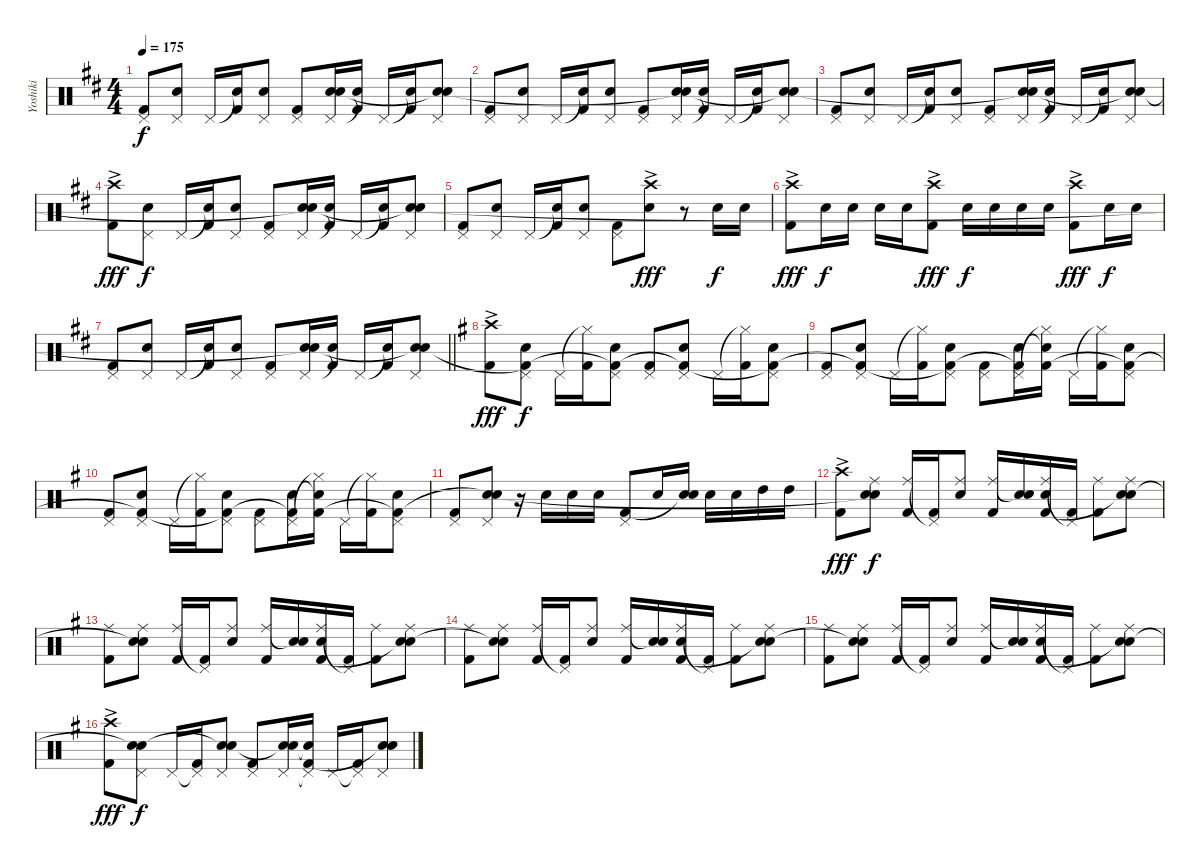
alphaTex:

\track ("Yoshiki" "Yoshiki") {instrument percussion}
\staff {score}
\articulation defaults
\ts (4 4)
\tempo 175
\clef neutral
\ks d
("Pedal Hi-Hat (hit)" "Kick (hit) 2").8{dy f} ("Pedal Hi-Hat (hit)" "Snare (hit) 2").8 "Pedal Hi-Hat (hit)".16 ("Snare (hit)"{t} "Kick (hit) 2").16 ("Pedal Hi-Hat (hit)" "Snare (hit) 2").8 ("Pedal Hi-Hat (hit)" "Kick (hit) 2").8 ("Pedal Hi-Hat (hit)" "Snare (hit) 2" "Snare (hit)"{t}).16 ("Snare (hit)"{t} "Kick (hit) 2").16 "Pedal Hi-Hat (hit)".16 ("Snare (hit)"{t} "Kick (hit) 2").16 ("Pedal Hi-Hat (hit)" "Snare (hit) 2" "Snare (hit)"{t}).8 |
("Pedal Hi-Hat (hit)" "Kick (hit) 2").8 ("Pedal Hi-Hat (hit)" "Snare (hit) 2").8 "Pedal Hi-Hat (hit)".16 ("Snare (hit)"{t} "Kick (hit) 2").16 ("Pedal Hi-Hat (hit)" "Snare (hit) 2").8 ("Pedal Hi-Hat (hit)" "Kick (hit) 2").8 ("Pedal Hi-Hat (hit)" "Snare (hit) 2" "Snare (hit)"{t}).16 ("Snare (hit)"{t} "Kick (hit) 2").16 "Pedal Hi-Hat (hit)".16 ("Snare (hit)"{t} "Kick (hit) 2").16 ("Pedal Hi-Hat (hit)" "Snare (hit) 2" "Snare (hit)"{t}).8 |
("Pedal Hi-Hat (hit)" "Kick (hit) 2").8 ("Pedal Hi-Hat (hit)" "Snare (hit) 2").8 "Pedal Hi-Hat (hit)".16 ("Snare (hit)"{t} "Kick (hit) 2").16 ("Pedal Hi-Hat (hit)" "Snare (hit) 2").8 ("Pedal Hi-Hat (hit)" "Kick (hit) 2").8 ("Pedal Hi-Hat (hit)" "Snare (hit) 2" "Snare (hit)"{t}).16 ("Snare (hit)"{t} "Kick (hit) 2").16 "Pedal Hi-Hat (hit)".16 ("Snare (hit)"{t} "Kick (hit) 2").16 ("Pedal Hi-Hat (hit)" "Snare (hit) 2" "Snare (hit)"{t}).8 |
("Crash high (hit)"{ac} "Kick (hit) 2"{ac}).8{dy fff} ("Pedal Hi-Hat (hit)" "Snare (hit) 2").8{dy f} "Pedal Hi-Hat (hit)".16 ("Snare (hit)"{t} "Kick (hit) 2").16 ("Pedal Hi-Hat (hit)" "Snare (hit) 2").8 ("Pedal Hi-Hat (hit)" "Kick (hit) 2").8 ("Pedal Hi-Hat (hit)" "Snare (hit) 2" "Snare (hit)"{t}).16 ("Snare (hit)"{t} "Kick (hit) 2").16 "Pedal Hi-Hat (hit)".16 ("Snare (hit)"{t} "Kick (hit) 2").16 ("Pedal Hi-Hat (hit)" "Snare (hit) 2" "Snare (hit)"{t}).8 |
("Pedal Hi-Hat (hit)" "Kick (hit) 2").8 ("Pedal Hi-Hat (hit)" "Snare (hit) 2").8 "Pedal Hi-Hat (hit)".16 ("Snare (hit)"{t} "Kick (hit) 2").16 ("Pedal Hi-Hat (hit)" "Snare (hit) 2").8 ("Pedal Hi-Hat (hit)" "Kick (hit) 2").8 ("Crash high (hit)"{ac} "Snare (hit) 2"{ac}).8{dy fff} r.8 "Snare (hit) 2".16{dy f} "Snare (hit) 2".16 |
("Crash high (hit)"{ac} "Kick (hit) 2"{ac}).8{dy fff} "Snare (hit) 2".16{dy f} "Snare (hit) 2".16 "Snare (hit) 2".16 "Snare (hit) 2".16 ("Crash high (hit)"{ac} "Kick (hit) 2"{ac}).8{dy fff} "Snare (hit) 2".16{dy f} "Snare (hit) 2".16 "Snare (hit) 2".16 "Snare (hit) 2".16 ("Crash high (hit)"{ac} "Kick (hit) 2"{ac}).8{dy fff} "Snare (hit) 2".16{dy f} "Snare (hit) 2".16 |
\barLineRight lightlight
("Pedal Hi-Hat (hit)" "Kick (hit) 2").8 ("Pedal Hi-Hat (hit)" "Snare (hit) 2").8 "Pedal Hi-Hat (hit)".16 ("Snare (hit)"{t} "Kick (hit) 2").16 ("Pedal Hi-Hat (hit)" "Snare (hit) 2").8 ("Pedal Hi-Hat (hit)" "Kick (hit) 2").8 ("Pedal Hi-Hat (hit)" "Snare (hit) 2" "Snare (hit)"{t}).16 ("Snare (hit)"{t} "Kick (hit) 2").16 "Pedal Hi-Hat (hit)".16 ("Snare (hit)"{t} "Kick (hit) 2").16 ("Pedal Hi-Hat (hit)" "Snare (hit) 2" "Snare (hit)"{t}).8 |
\ks g
("Crash high (hit)"{ac} "Kick (hit) 2").8{dy fff} ("Pedal Hi-Hat (hit)" "Snare (hit) 2" "Kick (hit) 2"{t}).8{dy f} "Pedal Hi-Hat (hit)".16 ("Hi-Hat (closed)"{t} "Kick (hit) 2").16 ("Pedal Hi-Hat (hit)" "Snare (hit) 2" "Kick (hit) 2"{t}).8 ("Pedal Hi-Hat (hit)" "Kick (hit) 2").8 ("Pedal Hi-Hat (hit)" "Snare (hit) 2" "Kick (hit) 2"{t}).8 "Pedal Hi-Hat (hit)".16 ("Hi-Hat (closed)"{t} "Kick (hit) 2").16 ("Pedal Hi-Hat (hit)" "Snare (hit) 2" "Kick (hit) 2"{t}).8 |
("Pedal Hi-Hat (hit)" "Kick (hit) 2").8 ("Pedal Hi-Hat (hit)" "Snare (hit) 2" "Kick (hit) 2"{t}).8 "Pedal Hi-Hat (hit)".16 ("Hi-Hat (closed)"{t} "Kick (hit) 2").16 ("Pedal Hi-Hat (hit)" "Snare (hit) 2" "Kick (hit) 2"{t}).8 ("Pedal Hi-Hat (hit)" "Kick (hit) 2").8 ("Pedal Hi-Hat (hit)" "Snare (hit) 2" "Kick (hit) 2"{t}).16 ("Hi-Hat (closed)"{t} "Snare (hit) 2"{t} "Kick (hit) 2").16 "Pedal Hi-Hat (hit)".16 ("Hi-Hat (closed)"{t} "Kick (hit) 2").16 ("Pedal Hi-Hat (hit)" "Snare (hit) 2" "Kick (hit) 2"{t}).8 |
("Pedal Hi-Hat (hit)" "Kick (hit) 2").8 ("Pedal Hi-Hat (hit)" "Snare (hit) 2" "Kick (hit) 2"{t}).8 "Pedal Hi-Hat (hit)".16 ("Hi-Hat (closed)"{t} "Kick (hit) 2").16 ("Pedal Hi-Hat (hit)" "Snare (hit) 2" "Kick (hit) 2"{t}).8 ("Pedal Hi-Hat (hit)" "Kick (hit) 2").8 ("Pedal Hi-Hat (hit)" "Snare (hit) 2" "Kick (hit) 2"{t}).16 ("Hi-Hat (closed)"{t} "Snare (hit) 2"{t} "Kick (hit) 2").16 "Pedal Hi-Hat (hit)".16 ("Hi-Hat (closed)"{t} "Kick (hit) 2").16 ("Pedal Hi-Hat (hit)" "Snare (hit) 2" "Kick (hit) 2"{t}).8 |
("Pedal Hi-Hat (hit)" "Kick (hit) 2").8 ("Pedal Hi-Hat (hit)" "Snare (hit) 2" "Snare (hit)"{t}).8 r.16 "Snare (hit) 2".16 "Snare (hit) 2".16 "Snare (hit) 2".16 ("Pedal Hi-Hat (hit)" "Kick (hit) 2").8 "Snare (hit) 2".16 ("Snare (hit) 2" "Snare (hit)"{t}).16 "Snare (hit) 2".16 "Snare (hit) 2".16 "High Tom (hit)".16 "High Tom (hit)".16 |
("Crash high (hit)"{ac} "Kick (hit) 2"{ac}).8{dy fff} ("Ride (middle)" "Snare (hit) 2" "Snare (hit)"{t}).8{dy f} ("Ride (middle)" "Kick (hit) 2").16 ("Pedal Hi-Hat (hit)"{t} "Kick (hit) 2").16 ("Ride (middle)" "Snare (hit) 2").8 ("Ride (middle)" "Kick (hit) 2").16 ("Snare (hit)"{t} "Snare (hit)").16 ("Ride (middle)" "Snare (hit) 2" "Kick (hit) 2").16 ("Pedal Hi-Hat (hit)"{t} "Kick (hit) 2").16 ("Ride (middle)" "Kick (hit) 2").8 ("Ride (middle)" "Snare (hit) 2" "Snare (hit)"{t}).8 |
("Ride (middle)" "Kick (hit) 2").8 ("Ride (middle)" "Snare (hit) 2" "Snare (hit)"{t}).8 ("Ride (middle)" "Kick (hit) 2").16 ("Pedal Hi-Hat (hit)"{t} "Kick (hit) 2").16 ("Ride (middle)" "Snare (hit) 2").8 ("Ride (middle)" "Kick (hit) 2").16 ("Snare (hit)"{t} "Snare (hit)").16 ("Ride (middle)" "Snare (hit) 2" "Kick (hit) 2").16 ("Pedal Hi-Hat (hit)"{t} "Kick (hit) 2").16 ("Ride (middle)" "Kick (hit) 2").8 ("Ride (middle)" "Snare (hit) 2" "Snare (hit)"{t}).8 |
("Ride (middle)" "Kick (hit) 2").8 ("Ride (middle)" "Snare (hit) 2" "Snare (hit)"{t}).8 ("Ride (middle)" "Kick (hit) 2").16 ("Pedal Hi-Hat (hit)"{t} "Kick (hit) 2").16 ("Ride (middle)" "Snare (hit) 2").8 ("Ride (middle)" "Kick (hit) 2").16 ("Snare (hit)"{t} "Snare (hit)").16 ("Ride (middle)" "Snare (hit) 2" "Kick (hit) 2").16 ("Pedal Hi-Hat (hit)"{t} "Kick (hit) 2").16 ("Ride (middle)" "Kick (hit) 2").8 ("Ride (middle)" "Snare (hit) 2" "Snare (hit)"{t}).8 |
("Ride (middle)" "Kick (hit) 2").8 ("Ride (middle)" "Snare (hit) 2" "Snare (hit)"{t}).8 ("Ride (middle)" "Kick (hit) 2").16 ("Pedal Hi-Hat (hit)"{t} "Kick (hit) 2").16 ("Ride (middle)" "Snare (hit) 2").8 ("Ride (middle)" "Kick (hit) 2").16 ("Snare (hit)"{t} "Snare (hit)").16 ("Ride (middle)" "Snare (hit) 2" "Kick (hit) 2").16 ("Pedal Hi-Hat (hit)"{t} "Kick (hit) 2").16 ("Ride (middle)" "Kick (hit) 2").8 ("Ride (middle)" "Snare (hit) 2" "Snare (hit)"{t}).8 |
("Crash high (hit)"{ac} "Kick (hit) 2"{ac}).8{dy fff} ("Pedal Hi-Hat (hit)" "Snare (hit) 2" "Snare (hit)"{t}).8{dy f} "Pedal Hi-Hat (hit)".16 ("Pedal Hi-Hat (hit)"{t} "Kick (hit) 2").16 ("Pedal Hi-Hat (hit)" "Snare (hit) 2" "Snare (hit)"{t}).8 ("Pedal Hi-Hat (hit)" "Kick (hit) 2").8 ("Pedal Hi-Hat (hit)" "Snare (hit) 2" "Snare (hit)"{t}).16 ("Pedal Hi-Hat (hit)"{t} "Snare (hit) 2"{t} "Kick (hit) 2").16 "Pedal Hi-Hat (hit)".16 ("Pedal Hi-Hat (hit)"{t} "Kick (hit) 2").16 ("Pedal Hi-Hat (hit)" "Snare (hit) 2" "Snare (hit)"{t}).8
